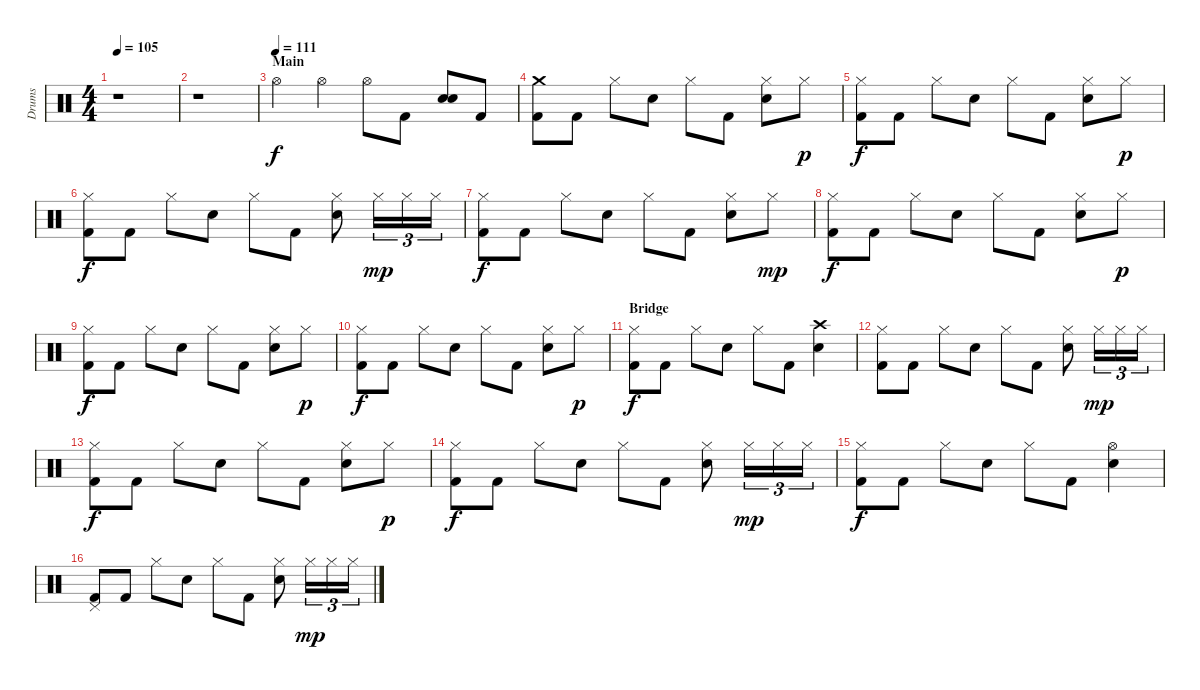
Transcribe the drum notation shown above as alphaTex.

\track ("Drums" "Drums") {instrument percussion}
\staff {score}
\articulation defaults
\ts (4 4)
\tempo 105
\clef neutral
\ks c
r.1{dy ppp} |
r.1 |
\section ("" "Main")
\tempo (111)
"Hi-Hat (open)".4{dy f} "Hi-Hat (open)".4 "Hi-Hat (open)".8 "Kick (hit) 2".8 ("Electric Snare (hit)" "Electric Snare (hit)").8{bd 120} "Kick (hit) 2".8 |
("Crash medium (hit)" "Kick (hit) 2").8 "Kick (hit) 2".8 "Hi-Hat (closed)".8 "Electric Snare (hit)".8 "Hi-Hat (closed)".8 "Kick (hit) 2".8 ("Hi-Hat (closed)" "Electric Snare (hit)").8 "Hi-Hat (closed)".8{dy p} |
("Hi-Hat (closed)" "Kick (hit) 2").8{dy f} "Kick (hit) 2".8 "Hi-Hat (closed)".8 "Electric Snare (hit)".8 "Hi-Hat (closed)".8 "Kick (hit) 2".8 ("Hi-Hat (closed)" "Electric Snare (hit)").8 "Hi-Hat (closed)".8{dy p} |
("Hi-Hat (closed)" "Kick (hit) 2").8{dy f} "Kick (hit) 2".8 "Hi-Hat (closed)".8 "Electric Snare (hit)".8 "Hi-Hat (closed)".8 "Kick (hit) 2".8 ("Hi-Hat (closed)" "Electric Snare (hit)").8 "Hi-Hat (closed)".16{tu (3 2) dy mp} "Hi-Hat (closed)".16{tu (3 2)} "Hi-Hat (closed)".16{tu (3 2)} |
("Hi-Hat (closed)" "Kick (hit) 2").8{dy f} "Kick (hit) 2".8 "Hi-Hat (closed)".8 "Electric Snare (hit)".8 "Hi-Hat (closed)".8 "Kick (hit) 2".8 ("Hi-Hat (closed)" "Electric Snare (hit)").8 "Hi-Hat (closed)".8{dy mp} |
("Hi-Hat (closed)" "Kick (hit) 2").8{dy f} "Kick (hit) 2".8 "Hi-Hat (closed)".8 "Electric Snare (hit)".8 "Hi-Hat (closed)".8 "Kick (hit) 2".8 ("Hi-Hat (closed)" "Electric Snare (hit)").8 "Hi-Hat (closed)".8{dy p} |
("Hi-Hat (closed)" "Kick (hit) 2").8{dy f} "Kick (hit) 2".8 "Hi-Hat (closed)".8 "Electric Snare (hit)".8 "Hi-Hat (closed)".8 "Kick (hit) 2".8 ("Hi-Hat (closed)" "Electric Snare (hit)").8 "Hi-Hat (closed)".8{dy p} |
("Hi-Hat (closed)" "Kick (hit) 2").8{dy f} "Kick (hit) 2".8 "Hi-Hat (closed)".8 "Electric Snare (hit)".8 "Hi-Hat (closed)".8 "Kick (hit) 2".8 ("Hi-Hat (closed)" "Electric Snare (hit)").8 "Hi-Hat (closed)".8{dy p} |
\section ("" "Bridge")
("Hi-Hat (closed)" "Kick (hit) 2").8{dy f} "Kick (hit) 2".8 "Hi-Hat (closed)".8 "Electric Snare (hit)".8 "Hi-Hat (closed)".8 "Kick (hit) 2".8 ("Crash high (hit)" "Electric Snare (hit)").4 |
("Hi-Hat (closed)" "Kick (hit) 2").8 "Kick (hit) 2".8 "Hi-Hat (closed)".8 "Electric Snare (hit)".8 "Hi-Hat (closed)".8 "Kick (hit) 2".8 ("Hi-Hat (closed)" "Electric Snare (hit)").8 "Hi-Hat (closed)".16{tu (3 2) dy mp} "Hi-Hat (closed)".16{tu (3 2)} "Hi-Hat (closed)".16{tu (3 2)} |
("Hi-Hat (closed)" "Kick (hit) 2").8{dy f} "Kick (hit) 2".8 "Hi-Hat (closed)".8 "Electric Snare (hit)".8 "Hi-Hat (closed)".8 "Kick (hit) 2".8 ("Hi-Hat (closed)" "Electric Snare (hit)").8 "Hi-Hat (closed)".8{dy p} |
("Hi-Hat (closed)" "Kick (hit) 2").8{dy f} "Kick (hit) 2".8 "Hi-Hat (closed)".8 "Electric Snare (hit)".8 "Hi-Hat (closed)".8 "Kick (hit) 2".8 ("Hi-Hat (closed)" "Electric Snare (hit)").8 "Hi-Hat (closed)".16{tu (3 2) dy mp} "Hi-Hat (closed)".16{tu (3 2)} "Hi-Hat (closed)".16{tu (3 2)} |
("Hi-Hat (closed)" "Kick (hit) 2").8{dy f} "Kick (hit) 2".8 "Hi-Hat (closed)".8 "Electric Snare (hit)".8 "Hi-Hat (closed)".8 "Kick (hit) 2".8 ("Hi-Hat (open)" "Electric Snare (hit)").4 |
("Pedal Hi-Hat (hit)" "Kick (hit) 2").8 "Kick (hit) 2".8 "Hi-Hat (closed)".8 "Electric Snare (hit)".8 "Hi-Hat (closed)".8 "Kick (hit) 2".8 ("Hi-Hat (closed)" "Electric Snare (hit)").8 "Hi-Hat (closed)".16{tu (3 2) dy mp} "Hi-Hat (closed)".16{tu (3 2)} "Hi-Hat (closed)".16{tu (3 2)}
